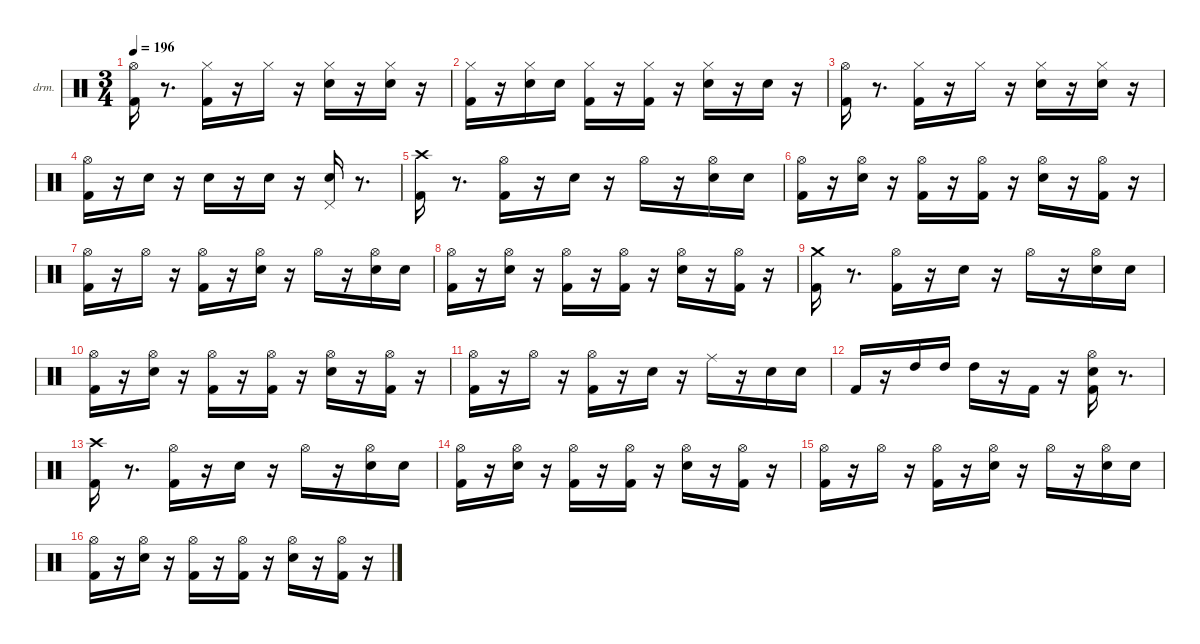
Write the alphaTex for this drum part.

\hideDynamics
\bracketExtendMode nobrackets
\firstSystemTrackNameOrientation horizontal
\otherSystemsTrackNameOrientation horizontal
\track ("EZdrummer 3" "drm.") {instrument percussion}
\staff {score}
\articulation defaults
\ts (3 4)
\tempo 196
\clef neutral
\ks aminor
("Kick (hit) 2" "Hi-Hat (open)"{acc #}).16{dy ff beam Down} r.8{d beam Down} ("Kick (hit) 2" "Hi-Hat (closed)"{acc #}).16{dy f beam Down} r.16{beam Down} "Hi-Hat (closed)"{acc #}.16{dy ppp beam Down} r.16{beam Down} ("Snare (hit) 2" "Hi-Hat (closed)"{acc #}).16{dy f beam Down} r.16{beam Down} ("Snare (hit) 2" "Hi-Hat (closed)"{acc #}).16{dy ppp beam Down} r.16{beam Down} |
("Kick (hit) 2" "Hi-Hat (closed)"{acc #}).16{dy ff beam Down} r.16{beam Down} ("Snare (hit) 2" "Hi-Hat (closed)"{acc #}).16{dy mf beam Down} "Snare (hit) 2".16{dy pp beam Down} ("Kick (hit) 2" "Hi-Hat (closed)"{acc #}).16{dy f beam Down} r.16{beam Down} ("Kick (hit) 2" "Hi-Hat (closed)"{acc #}).16{dy ff beam Down} r.16{beam Down} ("Snare (hit) 2" "Hi-Hat (closed)"{acc #}).16{beam Down} r.16{beam Down} "Snare (hit) 2".16{dy mp beam Down} r.16{beam Down} |
("Kick (hit) 2" "Hi-Hat (open)"{acc #}).16{dy fff beam Down} r.8{d beam Down} ("Kick (hit) 2" "Hi-Hat (closed)"{acc #}).16{dy f beam Down} r.16{beam Down} "Hi-Hat (closed)"{acc #}.16{dy ppp beam Down} r.16{beam Down} ("Snare (hit) 2" "Hi-Hat (closed)"{acc #}).16{dy f beam Down} r.16{beam Down} ("Snare (hit) 2" "Hi-Hat (closed)"{acc #}).16{dy ppp beam Down} r.16{beam Down} |
("Kick (hit) 2" "Hi-Hat (open)"{acc #}).16{dy ff beam Down} r.16{beam Down} "Snare (hit) 2".16{dy f beam Down} r.16{beam Down} "Snare (hit) 2".16{dy mf beam Down} r.16{beam Down} "Snare (hit) 2".16{dy ff beam Down} r.16{beam Down} ("Snare (hit) 2" "Pedal Hi-Hat (hit)"{acc #}).16{dy fff beam Up} r.8{d beam Up} |
("Kick (hit) 2" "Crash high (hit)"{acc #}).16{beam Down} r.8{d beam Down} ("Kick (hit) 2" "Hi-Hat (open)"{acc #}).16{dy f beam Down} r.16{beam Down} "Snare (hit) 2".16{dy ff beam Down} r.16{beam Down} "Hi-Hat (open)"{acc #}.16{dy f beam Down} r.16{beam Down} ("Snare (hit) 2" "Hi-Hat (open)"{acc #}).16{beam Down} "Snare (hit) 2".16{dy mp beam Down} |
("Kick (hit) 2" "Hi-Hat (open)"{acc #}).16{dy fff beam Down} r.16{beam Down} ("Snare (hit) 2" "Hi-Hat (open)"{acc #}).16{dy ff beam Down} r.16{beam Down} ("Kick (hit) 2" "Hi-Hat (open)"{acc #}).16{dy mf beam Down} r.16{beam Down} ("Kick (hit) 2" "Hi-Hat (open)"{acc #}).16{dy fff beam Down} r.16{beam Down} ("Snare (hit) 2" "Hi-Hat (open)"{acc #}).16{dy ff beam Down} r.16{beam Down} ("Kick (hit) 2" "Hi-Hat (open)"{acc #}).16{dy mp beam Down} r.16{beam Down} |
("Kick (hit) 2" "Hi-Hat (open)"{acc #}).16{dy fff beam Down} r.16{beam Down} "Hi-Hat (open)"{acc #}.16{dy pp beam Down} r.16{beam Down} ("Kick (hit) 2" "Hi-Hat (open)"{acc #}).16{dy f beam Down} r.16{beam Down} ("Snare (hit) 2" "Hi-Hat (open)"{acc #}).16{dy ff beam Down} r.16{beam Down} "Hi-Hat (open)"{acc #}.16{dy f beam Down} r.16{beam Down} ("Snare (hit) 2" "Hi-Hat (open)"{acc #}).16{beam Down} "Snare (hit) 2".16{dy mp beam Down} |
("Kick (hit) 2" "Hi-Hat (open)"{acc #}).16{dy fff beam Down} r.16{beam Down} ("Snare (hit) 2" "Hi-Hat (open)"{acc #}).16{dy ff beam Down} r.16{beam Down} ("Kick (hit) 2" "Hi-Hat (open)"{acc #}).16{dy mf beam Down} r.16{beam Down} ("Kick (hit) 2" "Hi-Hat (open)"{acc #}).16{dy fff beam Down} r.16{beam Down} ("Snare (hit) 2" "Hi-Hat (open)"{acc #}).16{dy ff beam Down} r.16{beam Down} ("Kick (hit) 2" "Hi-Hat (open)"{acc #}).16{dy mp beam Down} r.16{beam Down} |
("Kick (hit) 2" "Crash medium (hit)").16{dy fff beam Down} r.8{d beam Down} ("Kick (hit) 2" "Hi-Hat (open)"{acc #}).16{dy f beam Down} r.16{beam Down} "Snare (hit) 2".16{dy ff beam Down} r.16{beam Down} "Hi-Hat (open)"{acc #}.16{dy f beam Down} r.16{beam Down} ("Snare (hit) 2" "Hi-Hat (open)"{acc #}).16{beam Down} "Snare (hit) 2".16{dy mp beam Down} |
("Kick (hit) 2" "Hi-Hat (open)"{acc #}).16{dy fff beam Down} r.16{beam Down} ("Snare (hit) 2" "Hi-Hat (open)"{acc #}).16{dy ff beam Down} r.16{beam Down} ("Kick (hit) 2" "Hi-Hat (open)"{acc #}).16{dy mf beam Down} r.16{beam Down} ("Kick (hit) 2" "Hi-Hat (open)"{acc #}).16{dy fff beam Down} r.16{beam Down} ("Snare (hit) 2" "Hi-Hat (open)"{acc #}).16{dy ff beam Down} r.16{beam Down} ("Kick (hit) 2" "Hi-Hat (open)"{acc #}).16{dy mp beam Down} r.16{beam Down} |
("Kick (hit) 2" "Hi-Hat (open)"{acc #}).16{dy fff beam Down} r.16{beam Down} "Hi-Hat (open)"{acc #}.16{dy pp beam Down} r.16{beam Down} ("Kick (hit) 2" "Hi-Hat (open)"{acc #}).16{dy f beam Down} r.16{beam Down} "Snare (hit) 2".16{dy ff beam Down} r.16{beam Down} "Ride (middle)"{acc #}.16{beam Down} r.16{beam Down} "Snare (hit) 2".16{dy f beam Down} "Snare (hit) 2".16{dy mp beam Down} |
"Kick (hit) 2".16{dy fff beam Up} r.16{beam Up} "High Tom (hit)".16{dy ff beam Down} "High Tom (hit)".16{dy mf beam Down} "High Tom (hit)".16{dy fff beam Down} r.16{beam Down} "Kick (hit) 2".16{dy f beam Up} r.16{beam Up} ("Kick (hit) 2" "Snare (hit) 2" "Hi-Hat (open)"{acc #}).16{dy fff beam Down} r.8{d beam Down} |
("Kick (hit) 2" "Crash high (hit)"{acc #}).16{beam Down} r.8{d beam Down} ("Kick (hit) 2" "Hi-Hat (open)"{acc #}).16{dy f beam Down} r.16{beam Down} "Snare (hit) 2".16{dy ff beam Down} r.16{beam Down} "Hi-Hat (open)"{acc #}.16{dy f beam Down} r.16{beam Down} ("Snare (hit) 2" "Hi-Hat (open)"{acc #}).16{beam Down} "Snare (hit) 2".16{dy mp beam Down} |
("Kick (hit) 2" "Hi-Hat (open)"{acc #}).16{dy fff beam Down} r.16{beam Down} ("Snare (hit) 2" "Hi-Hat (open)"{acc #}).16{dy ff beam Down} r.16{beam Down} ("Kick (hit) 2" "Hi-Hat (open)"{acc #}).16{dy mf beam Down} r.16{beam Down} ("Kick (hit) 2" "Hi-Hat (open)"{acc #}).16{dy fff beam Down} r.16{beam Down} ("Snare (hit) 2" "Hi-Hat (open)"{acc #}).16{dy ff beam Down} r.16{beam Down} ("Kick (hit) 2" "Hi-Hat (open)"{acc #}).16{dy mp beam Down} r.16{beam Down} |
("Kick (hit) 2" "Hi-Hat (open)"{acc #}).16{dy fff beam Down} r.16{beam Down} "Hi-Hat (open)"{acc #}.16{dy pp beam Down} r.16{beam Down} ("Kick (hit) 2" "Hi-Hat (open)"{acc #}).16{dy f beam Down} r.16{beam Down} ("Snare (hit) 2" "Hi-Hat (open)"{acc #}).16{dy ff beam Down} r.16{beam Down} "Hi-Hat (open)"{acc #}.16{dy f beam Down} r.16{beam Down} ("Snare (hit) 2" "Hi-Hat (open)"{acc #}).16{beam Down} "Snare (hit) 2".16{dy mp beam Down} |
("Kick (hit) 2" "Hi-Hat (open)"{acc #}).16{dy fff beam Down} r.16{beam Down} ("Snare (hit) 2" "Hi-Hat (open)"{acc #}).16{dy ff beam Down} r.16{beam Down} ("Kick (hit) 2" "Hi-Hat (open)"{acc #}).16{dy mf beam Down} r.16{beam Down} ("Kick (hit) 2" "Hi-Hat (open)"{acc #}).16{dy fff beam Down} r.16{beam Down} ("Snare (hit) 2" "Hi-Hat (open)"{acc #}).16{dy ff beam Down} r.16{beam Down} ("Kick (hit) 2" "Hi-Hat (open)"{acc #}).16{dy mp beam Down} r.16{beam Down}
